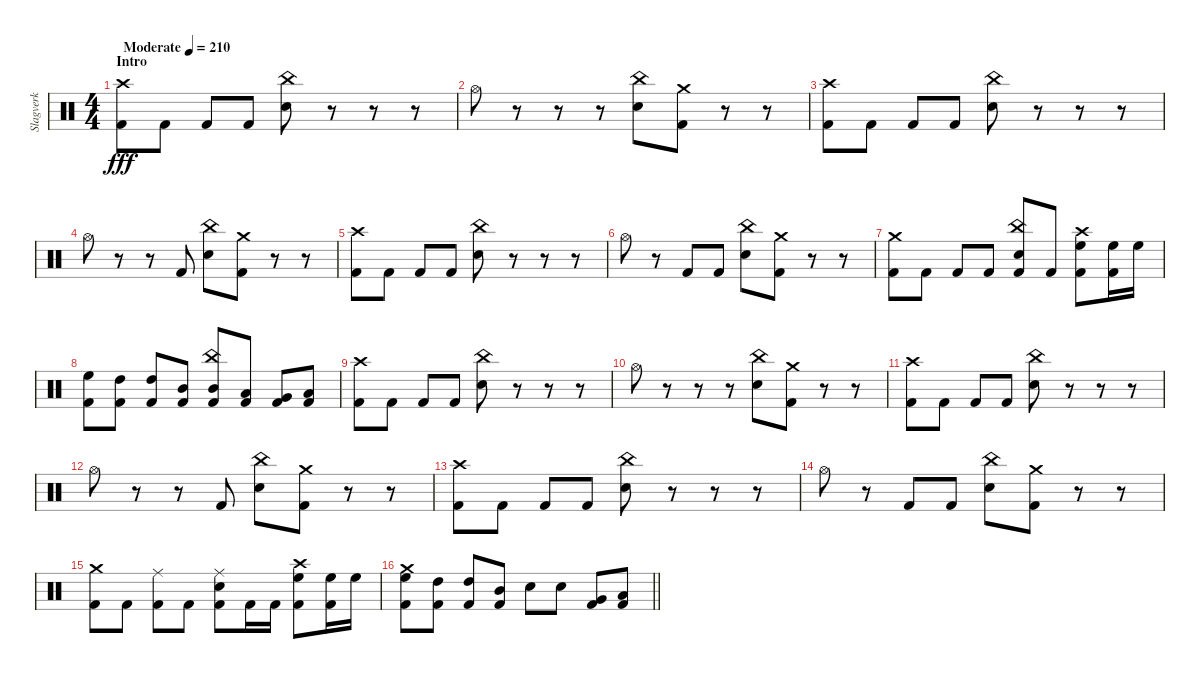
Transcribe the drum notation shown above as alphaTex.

\track ("Slagverk" "Slagverk") {instrument percussion}
\staff {score}
\articulation defaults
\ts (4 4)
\section ("" "Intro")
\tempo (210 "Moderate")
\clef neutral
\ks c
("Crash high (hit)" "Kick (hit) 2").8{dy fff} "Kick (hit) 2".8 "Kick (hit) 2".8 "Kick (hit) 2".8 ("China (hit)" "Electric Snare (hit)").8 r.8 r.8 r.8 |
"Hi-Hat (open)".8 r.8 r.8 r.8 ("China (hit)" "Electric Snare (hit)").8 ("Crash medium (hit)" "Kick (hit) 2").8 r.8 r.8 |
("Crash high (hit)" "Kick (hit) 2").8 "Kick (hit) 2".8 "Kick (hit) 2".8 "Kick (hit) 2".8 ("China (hit)" "Electric Snare (hit)").8 r.8 r.8 r.8 |
"Hi-Hat (open)".8 r.8 r.8 "Kick (hit) 2".8 ("China (hit)" "Electric Snare (hit)").8 ("Crash medium (hit)" "Kick (hit) 2").8 r.8 r.8 |
("Crash high (hit)" "Kick (hit) 2").8 "Kick (hit) 2".8 "Kick (hit) 2".8 "Kick (hit) 2".8 ("China (hit)" "Electric Snare (hit)").8 r.8 r.8 r.8 |
"Hi-Hat (open)".8 r.8 "Kick (hit) 2".8 "Kick (hit) 2".8 ("China (hit)" "Electric Snare (hit)").8 ("Crash medium (hit)" "Kick (hit) 2").8 r.8 r.8 |
("Crash medium (hit)" "Kick (hit) 2").8 "Kick (hit) 2".8 "Kick (hit) 2".8 "Kick (hit) 2".8 ("China (hit)" "Electric Snare (hit)" "Kick (hit) 2").8 "Kick (hit) 2".8 ("Crash high (hit)" "High Floor Tom (hit)" "Kick (hit) 2").8 ("High Floor Tom (hit)" "Kick (hit) 2").16 "High Floor Tom (hit)".16 |
("High Floor Tom (hit)" "Kick (hit) 2").8 ("High Tom (hit)" "Kick (hit) 2").8 ("High Tom (hit)" "Kick (hit) 2").8 ("Mid Tom (hit)" "Kick (hit) 2").8 ("China (hit)" "Mid Tom (hit)" "Kick (hit) 2").8 ("Low Tom (hit)" "Kick (hit) 2").8 ("Very Low Tom (hit)" "Kick (hit) 2").8 ("Low Floor Tom (hit)" "Kick (hit) 2").8 |
("Crash high (hit)" "Kick (hit) 2").8 "Kick (hit) 2".8 "Kick (hit) 2".8 "Kick (hit) 2".8 ("China (hit)" "Electric Snare (hit)").8 r.8 r.8 r.8 |
"Hi-Hat (open)".8 r.8 r.8 r.8 ("China (hit)" "Electric Snare (hit)").8 ("Crash medium (hit)" "Kick (hit) 2").8 r.8 r.8 |
("Crash high (hit)" "Kick (hit) 2").8 "Kick (hit) 2".8 "Kick (hit) 2".8 "Kick (hit) 2".8 ("China (hit)" "Electric Snare (hit)").8 r.8 r.8 r.8 |
"Hi-Hat (open)".8 r.8 r.8 "Kick (hit) 2".8 ("China (hit)" "Electric Snare (hit)").8 ("Crash medium (hit)" "Kick (hit) 2").8 r.8 r.8 |
("Crash high (hit)" "Kick (hit) 2").8 "Kick (hit) 2".8 "Kick (hit) 2".8 "Kick (hit) 2".8 ("China (hit)" "Electric Snare (hit)").8 r.8 r.8 r.8 |
"Hi-Hat (open)".8 r.8 "Kick (hit) 2".8 "Kick (hit) 2".8 ("China (hit)" "Electric Snare (hit)").8 ("Crash medium (hit)" "Kick (hit) 2").8 r.8 r.8 |
("Crash medium (hit)" "Kick (hit) 2").8 "Kick (hit) 2".8 ("Ride (middle)" "Kick (hit) 2").8 "Kick (hit) 2".8 ("Ride (middle)" "Electric Snare (hit)" "Kick (hit) 2").8 "Kick (hit) 2".16 "Kick (hit) 2".16 ("Crash high (hit)" "High Floor Tom (hit)" "Kick (hit) 2").8 ("High Floor Tom (hit)" "Kick (hit) 2").16 "High Floor Tom (hit)".16 |
\barLineRight lightlight
("Crash medium (hit)" "High Floor Tom (hit)" "Kick (hit) 2").8 ("High Tom (hit)" "Kick (hit) 2").8 ("High Tom (hit)" "Kick (hit) 2").8 ("Mid Tom (hit)" "Kick (hit) 2").8 "Electric Snare (hit)".8 "Electric Snare (hit)".8 ("Very Low Tom (hit)" "Kick (hit) 2").8 ("Low Floor Tom (hit)" "Kick (hit) 2").8
